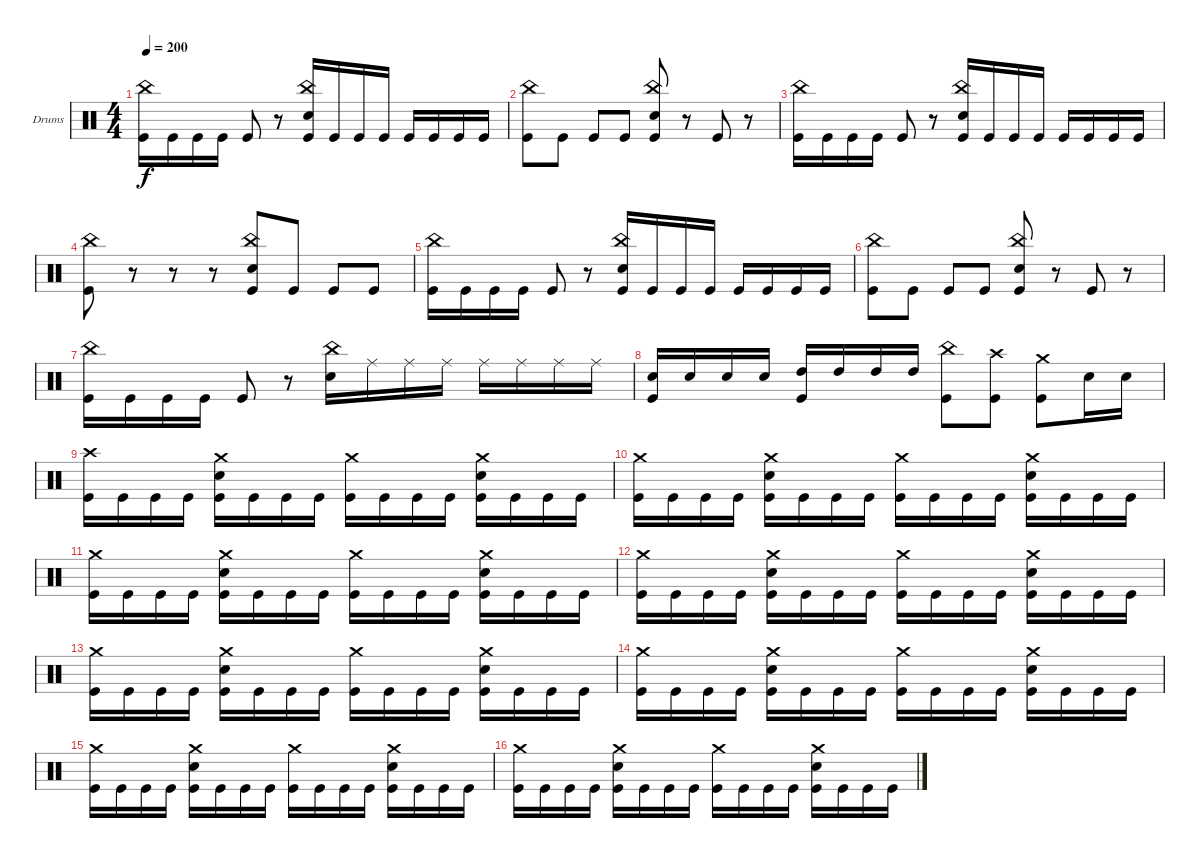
\bracketExtendMode groupsimilarinstruments
\firstSystemTrackNameOrientation horizontal
\otherSystemsTrackNameOrientation horizontal
\track ("Drumkit" "Drums") {instrument percussion}
\staff {score}
\articulation defaults
\ts (4 4)
\tempo 200
\clef neutral
\ks c
("Kick (hit)" "China (hit)").16{dy f} "Kick (hit)".16 "Kick (hit)".16 "Kick (hit)".16 "Kick (hit)".8 r.8 ("Kick (hit)" "China (hit)" "Snare (hit) 2").16 "Kick (hit)".16 "Kick (hit)".16 "Kick (hit)".16 "Kick (hit)".16 "Kick (hit)".16 "Kick (hit)".16 "Kick (hit)".16 |
("Kick (hit)" "China (hit)").8 "Kick (hit)".8 "Kick (hit)".8 "Kick (hit)".8 ("Kick (hit)" "China (hit)" "Snare (hit) 2").8 r.8 "Kick (hit)".8 r.8 |
("Kick (hit)" "China (hit)").16 "Kick (hit)".16 "Kick (hit)".16 "Kick (hit)".16 "Kick (hit)".8 r.8 ("Kick (hit)" "China (hit)" "Snare (hit) 2").16 "Kick (hit)".16 "Kick (hit)".16 "Kick (hit)".16 "Kick (hit)".16 "Kick (hit)".16 "Kick (hit)".16 "Kick (hit)".16 |
("Kick (hit)" "China (hit)").8 r.8 r.8 r.8 ("Kick (hit)" "China (hit)" "Snare (hit) 2").8 "Kick (hit)".8 "Kick (hit)".8 "Kick (hit)".8 |
("Kick (hit)" "China (hit)").16 "Kick (hit)".16 "Kick (hit)".16 "Kick (hit)".16 "Kick (hit)".8 r.8 ("Kick (hit)" "China (hit)" "Snare (hit) 2").16 "Kick (hit)".16 "Kick (hit)".16 "Kick (hit)".16 "Kick (hit)".16 "Kick (hit)".16 "Kick (hit)".16 "Kick (hit)".16 |
("Kick (hit)" "China (hit)").8 "Kick (hit)".8 "Kick (hit)".8 "Kick (hit)".8 ("Kick (hit)" "China (hit)" "Snare (hit) 2").8 r.8 "Kick (hit)".8 r.8 |
("Kick (hit)" "China (hit)").16 "Kick (hit)".16 "Kick (hit)".16 "Kick (hit)".16 "Kick (hit)".8 r.8 ("China (hit)" "Snare (hit) 2").16 "Ride (middle)".16 "Ride (middle)".16 "Ride (middle)".16 "Ride (middle)".16 "Ride (middle)".16 "Ride (middle)".16 "Ride (middle)".16 |
("Snare (hit) 2" "Kick (hit)").16 "Snare (hit) 2".16 "Snare (hit) 2".16 "Snare (hit) 2".16 ("High Tom (hit)" "Kick (hit)").16 "High Tom (hit)".16 "High Tom (hit)".16 "High Tom (hit)".16 ("China (hit)" "Kick (hit)").8 ("Kick (hit)" "Crash high (hit)").8 ("Kick (hit)" "Crash medium (hit)").8 "Snare (hit) 2".16 "Snare (hit) 2".16 |
("Crash high (hit)" "Kick (hit)").16 "Kick (hit)".16 "Kick (hit)".16 "Kick (hit)".16 ("Kick (hit)" "Snare (hit) 2" "Crash medium (hit)").16 "Kick (hit)".16 "Kick (hit)".16 "Kick (hit)".16 ("Kick (hit)" "Crash medium (hit)").16 "Kick (hit)".16 "Kick (hit)".16 "Kick (hit)".16 ("Kick (hit)" "Snare (hit) 2" "Crash medium (hit)").16 "Kick (hit)".16 "Kick (hit)".16 "Kick (hit)".16 |
("Kick (hit)" "Crash medium (hit)").16 "Kick (hit)".16 "Kick (hit)".16 "Kick (hit)".16 ("Kick (hit)" "Snare (hit) 2" "Crash medium (hit)").16 "Kick (hit)".16 "Kick (hit)".16 "Kick (hit)".16 ("Kick (hit)" "Crash medium (hit)").16 "Kick (hit)".16 "Kick (hit)".16 "Kick (hit)".16 ("Kick (hit)" "Snare (hit) 2" "Crash medium (hit)").16 "Kick (hit)".16 "Kick (hit)".16 "Kick (hit)".16 |
("Kick (hit)" "Crash medium (hit)").16 "Kick (hit)".16 "Kick (hit)".16 "Kick (hit)".16 ("Kick (hit)" "Snare (hit) 2" "Crash medium (hit)").16 "Kick (hit)".16 "Kick (hit)".16 "Kick (hit)".16 ("Kick (hit)" "Crash medium (hit)").16 "Kick (hit)".16 "Kick (hit)".16 "Kick (hit)".16 ("Kick (hit)" "Snare (hit) 2" "Crash medium (hit)").16 "Kick (hit)".16 "Kick (hit)".16 "Kick (hit)".16 |
("Kick (hit)" "Crash medium (hit)").16 "Kick (hit)".16 "Kick (hit)".16 "Kick (hit)".16 ("Kick (hit)" "Snare (hit) 2" "Crash medium (hit)").16 "Kick (hit)".16 "Kick (hit)".16 "Kick (hit)".16 ("Kick (hit)" "Crash medium (hit)").16 "Kick (hit)".16 "Kick (hit)".16 "Kick (hit)".16 ("Kick (hit)" "Snare (hit) 2" "Crash medium (hit)").16 "Kick (hit)".16 "Kick (hit)".16 "Kick (hit)".16 |
("Kick (hit)" "Crash medium (hit)").16 "Kick (hit)".16 "Kick (hit)".16 "Kick (hit)".16 ("Kick (hit)" "Snare (hit) 2" "Crash medium (hit)").16 "Kick (hit)".16 "Kick (hit)".16 "Kick (hit)".16 ("Kick (hit)" "Crash medium (hit)").16 "Kick (hit)".16 "Kick (hit)".16 "Kick (hit)".16 ("Kick (hit)" "Snare (hit) 2" "Crash medium (hit)").16 "Kick (hit)".16 "Kick (hit)".16 "Kick (hit)".16 |
("Kick (hit)" "Crash medium (hit)").16 "Kick (hit)".16 "Kick (hit)".16 "Kick (hit)".16 ("Kick (hit)" "Snare (hit) 2" "Crash medium (hit)").16 "Kick (hit)".16 "Kick (hit)".16 "Kick (hit)".16 ("Kick (hit)" "Crash medium (hit)").16 "Kick (hit)".16 "Kick (hit)".16 "Kick (hit)".16 ("Kick (hit)" "Snare (hit) 2" "Crash medium (hit)").16 "Kick (hit)".16 "Kick (hit)".16 "Kick (hit)".16 |
("Kick (hit)" "Crash medium (hit)").16 "Kick (hit)".16 "Kick (hit)".16 "Kick (hit)".16 ("Kick (hit)" "Snare (hit) 2" "Crash medium (hit)").16 "Kick (hit)".16 "Kick (hit)".16 "Kick (hit)".16 ("Kick (hit)" "Crash medium (hit)").16 "Kick (hit)".16 "Kick (hit)".16 "Kick (hit)".16 ("Kick (hit)" "Snare (hit) 2" "Crash medium (hit)").16 "Kick (hit)".16 "Kick (hit)".16 "Kick (hit)".16 |
("Kick (hit)" "Crash medium (hit)").16 "Kick (hit)".16 "Kick (hit)".16 "Kick (hit)".16 ("Kick (hit)" "Snare (hit) 2" "Crash medium (hit)").16 "Kick (hit)".16 "Kick (hit)".16 "Kick (hit)".16 ("Kick (hit)" "Crash medium (hit)").16 "Kick (hit)".16 "Kick (hit)".16 "Kick (hit)".16 ("Kick (hit)" "Snare (hit) 2" "Crash medium (hit)").16 "Kick (hit)".16 "Kick (hit)".16 "Kick (hit)".16
